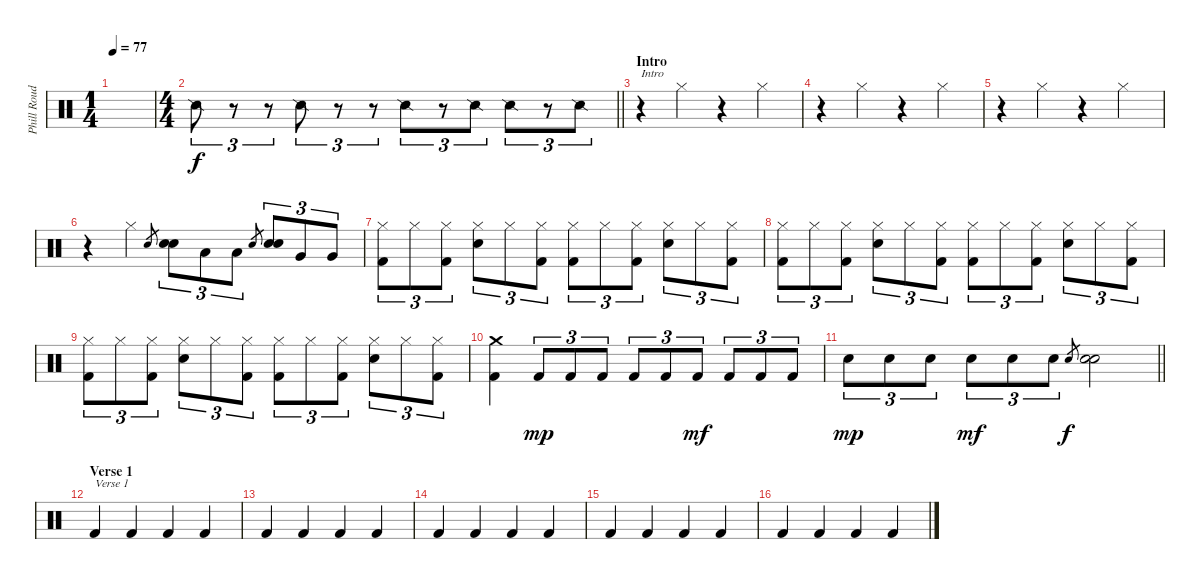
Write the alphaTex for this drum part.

\track ("Phill Roud" "Phill Roud") {instrument percussion}
\staff {score}
\articulation defaults
\ts (1 4)
\tempo 77
\clef neutral
\ks c
|
\ts (4 4)
\barLineRight lightlight "Snare (side stick) 2".8{tu (3 2)}
r.8{tu (3 2)} r.8{tu (3 2)} "Snare (side stick) 2".8{tu (3 2)} r.8{tu (3 2)} r.8{tu (3 2)} "Snare (side stick) 2".8{tu (3 2)} r.8{tu (3 2)} "Snare (side stick) 2".8{tu (3 2)} "Snare (side stick) 2".8{tu (3 2)} r.8{tu (3 2)} "Snare (side stick) 2".8{tu (3 2)} |
\section ("" "Intro")
r.4{txt "Intro"} "Hi-Hat (closed)".4 r.4 "Hi-Hat (closed)".4 |
r.4 "Hi-Hat (closed)".4 r.4 "Hi-Hat (closed)".4 |
r.4 "Hi-Hat (closed)".4 r.4 "Hi-Hat (closed)".4 |
r.4 "Hi-Hat (closed)".4 "Electric Snare (hit)".8{gr} ("Electric Snare (hit)" "Electric Snare (hit)").8{tu (3 2)} "Low Tom (hit)".8{tu (3 2)} "Low Tom (hit)".8{tu (3 2)} "Electric Snare (hit)".8{gr} ("Electric Snare (hit)" "Electric Snare (hit)").8{tu (3 2)} "Very Low Tom (hit)".8{tu (3 2)} "Very Low Tom (hit)".8{tu (3 2)} |
("Kick (hit) 2" "Hi-Hat (closed)").8{tu (3 2)} "Hi-Hat (closed)".8{tu (3 2)} ("Kick (hit) 2" "Hi-Hat (closed)").8{tu (3 2)} ("Electric Snare (hit)" "Hi-Hat (closed)").8{tu (3 2)} "Hi-Hat (closed)".8{tu (3 2)} ("Kick (hit) 2" "Hi-Hat (closed)").8{tu (3 2)} ("Kick (hit) 2" "Hi-Hat (closed)").8{tu (3 2)} "Hi-Hat (closed)".8{tu (3 2)} ("Kick (hit) 2" "Hi-Hat (closed)").8{tu (3 2)} ("Electric Snare (hit)" "Hi-Hat (closed)").8{tu (3 2)} "Hi-Hat (closed)".8{tu (3 2)} ("Kick (hit) 2" "Hi-Hat (closed)").8{tu (3 2)} |
("Kick (hit) 2" "Hi-Hat (closed)").8{tu (3 2)} "Hi-Hat (closed)".8{tu (3 2)} ("Kick (hit) 2" "Hi-Hat (closed)").8{tu (3 2)} ("Electric Snare (hit)" "Hi-Hat (closed)").8{tu (3 2)} "Hi-Hat (closed)".8{tu (3 2)} ("Kick (hit) 2" "Hi-Hat (closed)").8{tu (3 2)} ("Kick (hit) 2" "Hi-Hat (closed)").8{tu (3 2)} "Hi-Hat (closed)".8{tu (3 2)} ("Kick (hit) 2" "Hi-Hat (closed)").8{tu (3 2)} ("Electric Snare (hit)" "Hi-Hat (closed)").8{tu (3 2)} "Hi-Hat (closed)".8{tu (3 2)} ("Kick (hit) 2" "Hi-Hat (closed)").8{tu (3 2)} |
("Kick (hit) 2" "Hi-Hat (closed)").8{tu (3 2)} "Hi-Hat (closed)".8{tu (3 2)} ("Kick (hit) 2" "Hi-Hat (closed)").8{tu (3 2)} ("Electric Snare (hit)" "Hi-Hat (closed)").8{tu (3 2)} "Hi-Hat (closed)".8{tu (3 2)} ("Kick (hit) 2" "Hi-Hat (closed)").8{tu (3 2)} ("Kick (hit) 2" "Hi-Hat (closed)").8{tu (3 2)} "Hi-Hat (closed)".8{tu (3 2)} ("Kick (hit) 2" "Hi-Hat (closed)").8{tu (3 2)} ("Electric Snare (hit)" "Hi-Hat (closed)").8{tu (3 2)} "Hi-Hat (closed)".8{tu (3 2)} ("Kick (hit) 2" "Hi-Hat (closed)").8{tu (3 2)} |
("Kick (hit) 2" "Crash medium (hit)").4 "Kick (hit) 2".8{tu (3 2) dy mp} "Kick (hit) 2".8{tu (3 2)} "Kick (hit) 2".8{tu (3 2)} "Kick (hit) 2".8{tu (3 2)} "Kick (hit) 2".8{tu (3 2)} "Kick (hit) 2".8{tu (3 2) dy mf} "Kick (hit) 2".8{tu (3 2)} "Kick (hit) 2".8{tu (3 2)} "Kick (hit) 2".8{tu (3 2)} |
\barLineRight lightlight "Electric Snare (hit)".8{tu (3 2) dy mp} "Electric Snare (hit)".8{tu (3 2)} "Electric Snare (hit)".8{tu (3 2)} "Electric Snare (hit)".8{tu (3 2) dy mf} "Electric Snare (hit)".8{tu (3 2)} "Electric Snare (hit)".8{tu (3 2)} "Electric Snare (hit)".8{gr dy f}
("Electric Snare (hit)" "Electric Snare (hit)").2 |
\section ("" "Verse 1")
"Kick (hit) 2".4{txt "Verse 1"} "Kick (hit) 2".4 "Kick (hit) 2".4 "Kick (hit) 2".4 |
"Kick (hit) 2".4 "Kick (hit) 2".4 "Kick (hit) 2".4 "Kick (hit) 2".4 |
"Kick (hit) 2".4 "Kick (hit) 2".4 "Kick (hit) 2".4 "Kick (hit) 2".4 |
"Kick (hit) 2".4 "Kick (hit) 2".4 "Kick (hit) 2".4 "Kick (hit) 2".4 |
"Kick (hit) 2".4 "Kick (hit) 2".4 "Kick (hit) 2".4 "Kick (hit) 2".4
